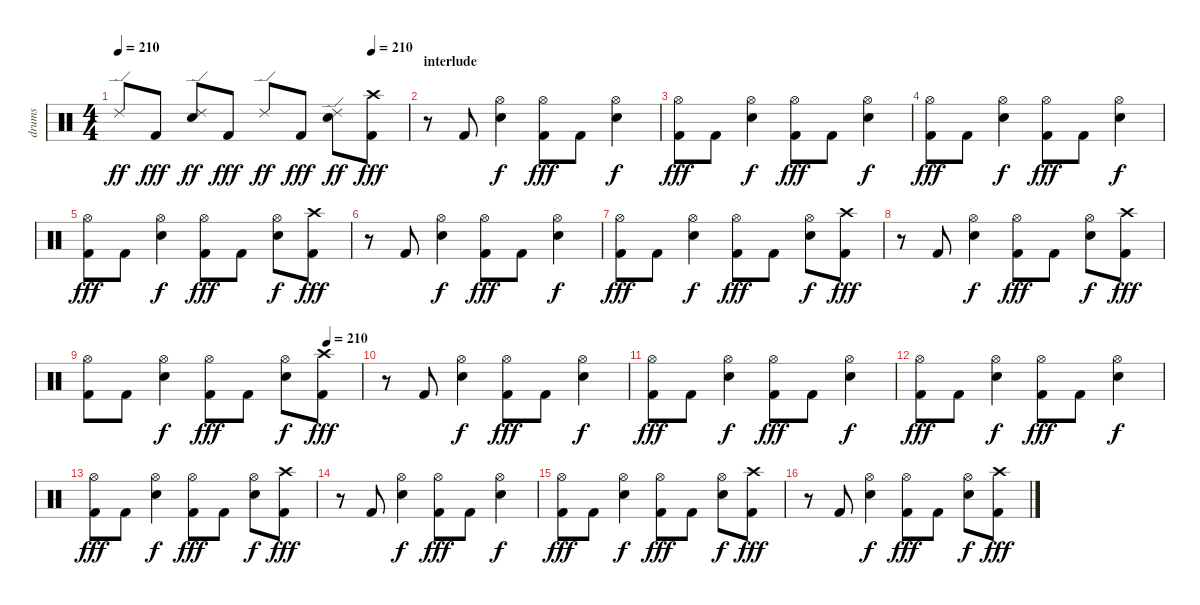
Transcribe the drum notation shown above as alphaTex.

\track ("drums" "drums") {instrument percussion}
\staff {score}
\articulation defaults
\ts (4 4)
\tempo 210
\tempo (210 0.875)
\clef neutral
\ks c "Ride (edge) 2".8{dy ff} "Kick (hit) 2".8{dy fff}
("Ride (edge) 2" "Snare (hit) 2").8{dy ff} "Kick (hit) 2".8{dy fff} "Ride (edge) 2".8{dy ff} "Kick (hit) 2".8{dy fff} ("Ride (edge) 2" "Snare (hit) 2").8{dy ff} ("Crash high (hit)" "Kick (hit) 2").8{dy fff} |
\section ("" "interlude")
r.8 "Kick (hit) 2".8 ("Hi-Hat (open)" "Snare (hit) 2").4{dy f} ("Hi-Hat (open)" "Kick (hit) 2").8{dy fff} "Kick (hit) 2".8 ("Hi-Hat (open)" "Snare (hit) 2").4{dy f} |
("Hi-Hat (open)" "Kick (hit) 2").8{dy fff} "Kick (hit) 2".8 ("Hi-Hat (open)" "Snare (hit) 2").4{dy f} ("Hi-Hat (open)" "Kick (hit) 2").8{dy fff} "Kick (hit) 2".8 ("Hi-Hat (open)" "Snare (hit) 2").4{dy f} |
("Hi-Hat (open)" "Kick (hit) 2").8{dy fff} "Kick (hit) 2".8 ("Hi-Hat (open)" "Snare (hit) 2").4{dy f} ("Hi-Hat (open)" "Kick (hit) 2").8{dy fff} "Kick (hit) 2".8 ("Hi-Hat (open)" "Snare (hit) 2").4{dy f} |
("Hi-Hat (open)" "Kick (hit) 2").8{dy fff} "Kick (hit) 2".8 ("Hi-Hat (open)" "Snare (hit) 2").4{dy f} ("Hi-Hat (open)" "Kick (hit) 2").8{dy fff} "Kick (hit) 2".8 ("Hi-Hat (open)" "Snare (hit) 2").8{dy f} ("Crash high (hit)" "Kick (hit) 2").8{dy fff} |
r.8 "Kick (hit) 2".8 ("Hi-Hat (open)" "Snare (hit) 2").4{dy f} ("Hi-Hat (open)" "Kick (hit) 2").8{dy fff} "Kick (hit) 2".8 ("Hi-Hat (open)" "Snare (hit) 2").4{dy f} |
("Hi-Hat (open)" "Kick (hit) 2").8{dy fff} "Kick (hit) 2".8 ("Hi-Hat (open)" "Snare (hit) 2").4{dy f} ("Hi-Hat (open)" "Kick (hit) 2").8{dy fff} "Kick (hit) 2".8 ("Hi-Hat (open)" "Snare (hit) 2").8{dy f} ("Crash high (hit)" "Kick (hit) 2").8{dy fff} |
r.8 "Kick (hit) 2".8 ("Hi-Hat (open)" "Snare (hit) 2").4{dy f} ("Hi-Hat (open)" "Kick (hit) 2").8{dy fff} "Kick (hit) 2".8 ("Hi-Hat (open)" "Snare (hit) 2").8{dy f} ("Crash high (hit)" "Kick (hit) 2").8{dy fff} |
\tempo (210 0.875)
("Hi-Hat (open)" "Kick (hit) 2").8 "Kick (hit) 2".8 ("Hi-Hat (open)" "Snare (hit) 2").4{dy f} ("Hi-Hat (open)" "Kick (hit) 2").8{dy fff} "Kick (hit) 2".8 ("Hi-Hat (open)" "Snare (hit) 2").8{dy f} ("Crash high (hit)" "Kick (hit) 2").8{dy fff} |
r.8 "Kick (hit) 2".8 ("Hi-Hat (open)" "Snare (hit) 2").4{dy f} ("Hi-Hat (open)" "Kick (hit) 2").8{dy fff} "Kick (hit) 2".8 ("Hi-Hat (open)" "Snare (hit) 2").4{dy f} |
("Hi-Hat (open)" "Kick (hit) 2").8{dy fff} "Kick (hit) 2".8 ("Hi-Hat (open)" "Snare (hit) 2").4{dy f} ("Hi-Hat (open)" "Kick (hit) 2").8{dy fff} "Kick (hit) 2".8 ("Hi-Hat (open)" "Snare (hit) 2").4{dy f} |
("Hi-Hat (open)" "Kick (hit) 2").8{dy fff} "Kick (hit) 2".8 ("Hi-Hat (open)" "Snare (hit) 2").4{dy f} ("Hi-Hat (open)" "Kick (hit) 2").8{dy fff} "Kick (hit) 2".8 ("Hi-Hat (open)" "Snare (hit) 2").4{dy f} |
("Hi-Hat (open)" "Kick (hit) 2").8{dy fff} "Kick (hit) 2".8 ("Hi-Hat (open)" "Snare (hit) 2").4{dy f} ("Hi-Hat (open)" "Kick (hit) 2").8{dy fff} "Kick (hit) 2".8 ("Hi-Hat (open)" "Snare (hit) 2").8{dy f} ("Crash high (hit)" "Kick (hit) 2").8{dy fff} |
r.8 "Kick (hit) 2".8 ("Hi-Hat (open)" "Snare (hit) 2").4{dy f} ("Hi-Hat (open)" "Kick (hit) 2").8{dy fff} "Kick (hit) 2".8 ("Hi-Hat (open)" "Snare (hit) 2").4{dy f} |
("Hi-Hat (open)" "Kick (hit) 2").8{dy fff} "Kick (hit) 2".8 ("Hi-Hat (open)" "Snare (hit) 2").4{dy f} ("Hi-Hat (open)" "Kick (hit) 2").8{dy fff} "Kick (hit) 2".8 ("Hi-Hat (open)" "Snare (hit) 2").8{dy f} ("Crash high (hit)" "Kick (hit) 2").8{dy fff} |
r.8 "Kick (hit) 2".8 ("Hi-Hat (open)" "Snare (hit) 2").4{dy f} ("Hi-Hat (open)" "Kick (hit) 2").8{dy fff} "Kick (hit) 2".8 ("Hi-Hat (open)" "Snare (hit) 2").8{dy f} ("Crash high (hit)" "Kick (hit) 2").8{dy fff}
